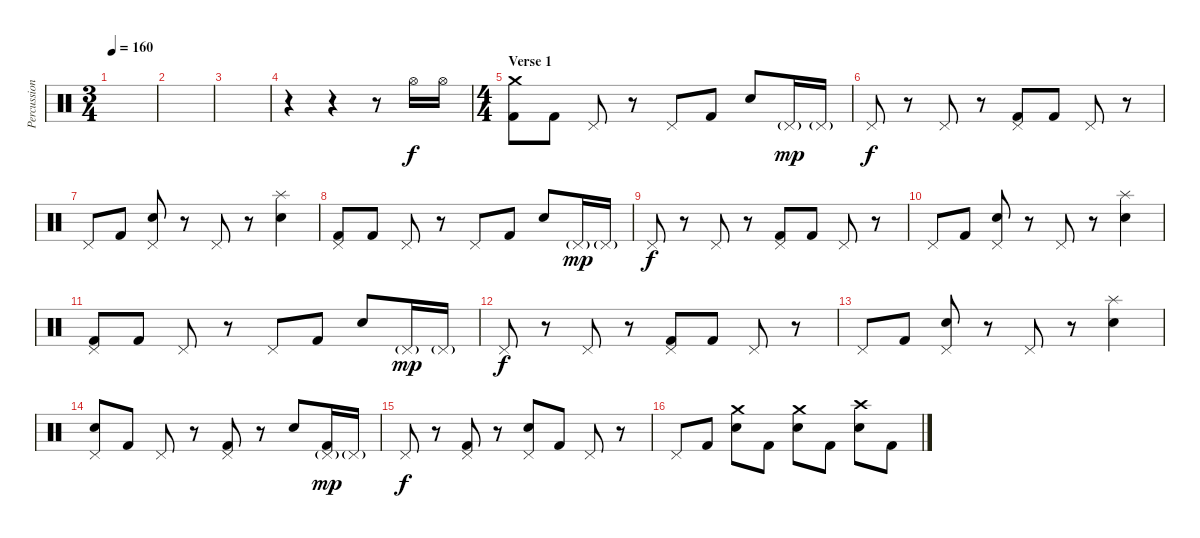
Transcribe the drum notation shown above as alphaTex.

\track ("Percussion" "Percussion") {instrument percussion}
\staff {score}
\articulation defaults
\ts (3 4)
\tempo 160
\clef neutral
\ks c
|
|
|
r.4 r.4 r.8 "Hi-Hat (open)".16 "Hi-Hat (open)".16 |
\ts (4 4)
\section ("" "Verse 1")
("Crash medium (hit)" "Kick (hit) 2").8 "Kick (hit) 2".8 "Pedal Hi-Hat (hit)".8 r.8 "Pedal Hi-Hat (hit)".8 "Kick (hit) 2".8 "Electric Snare (hit)".8 "Pedal Hi-Hat (hit)"{g}.16{dy mp} "Pedal Hi-Hat (hit)"{g}.16 |
"Pedal Hi-Hat (hit)".8{dy f} r.8 "Pedal Hi-Hat (hit)".8 r.8 ("Pedal Hi-Hat (hit)" "Kick (hit) 2").8 "Kick (hit) 2".8 "Pedal Hi-Hat (hit)".8 r.8 |
"Pedal Hi-Hat (hit)".8 "Kick (hit) 2".8 ("Pedal Hi-Hat (hit)" "Electric Snare (hit)").8 r.8 "Pedal Hi-Hat (hit)".8 r.8 ("Splash (hit)" "Electric Snare (hit)").4 |
("Pedal Hi-Hat (hit)" "Kick (hit) 2").8 "Kick (hit) 2".8 "Pedal Hi-Hat (hit)".8 r.8 "Pedal Hi-Hat (hit)".8 "Kick (hit) 2".8 "Electric Snare (hit)".8 "Pedal Hi-Hat (hit)"{g}.16{dy mp} "Pedal Hi-Hat (hit)"{g}.16 |
"Pedal Hi-Hat (hit)".8{dy f} r.8 "Pedal Hi-Hat (hit)".8 r.8 ("Pedal Hi-Hat (hit)" "Kick (hit) 2").8 "Kick (hit) 2".8 "Pedal Hi-Hat (hit)".8 r.8 |
"Pedal Hi-Hat (hit)".8 "Kick (hit) 2".8 ("Pedal Hi-Hat (hit)" "Electric Snare (hit)").8 r.8 "Pedal Hi-Hat (hit)".8 r.8 ("Splash (hit)" "Electric Snare (hit)").4 |
("Pedal Hi-Hat (hit)" "Kick (hit) 2").8 "Kick (hit) 2".8 "Pedal Hi-Hat (hit)".8 r.8 "Pedal Hi-Hat (hit)".8 "Kick (hit) 2".8 "Electric Snare (hit)".8 "Pedal Hi-Hat (hit)"{g}.16{dy mp} "Pedal Hi-Hat (hit)"{g}.16 |
"Pedal Hi-Hat (hit)".8{dy f} r.8 "Pedal Hi-Hat (hit)".8 r.8 ("Pedal Hi-Hat (hit)" "Kick (hit) 2").8 "Kick (hit) 2".8 "Pedal Hi-Hat (hit)".8 r.8 |
"Pedal Hi-Hat (hit)".8 "Kick (hit) 2".8 ("Pedal Hi-Hat (hit)" "Electric Snare (hit)").8 r.8 "Pedal Hi-Hat (hit)".8 r.8 ("Splash (hit)" "Electric Snare (hit)").4 |
("Pedal Hi-Hat (hit)" "Electric Snare (hit)").8 "Kick (hit) 2".8 "Pedal Hi-Hat (hit)".8 r.8 ("Pedal Hi-Hat (hit)" "Kick (hit) 2").8 r.8 "Electric Snare (hit)".8 ("Pedal Hi-Hat (hit)"{g} "Kick (hit) 2").16{dy mp} "Pedal Hi-Hat (hit)"{g}.16 |
"Pedal Hi-Hat (hit)".8{dy f} r.8 ("Pedal Hi-Hat (hit)" "Kick (hit) 2").8 r.8 ("Pedal Hi-Hat (hit)" "Electric Snare (hit)").8 "Kick (hit) 2".8 "Pedal Hi-Hat (hit)".8 r.8 |
"Pedal Hi-Hat (hit)".8 "Kick (hit) 2".8 ("Crash medium (hit)" "Electric Snare (hit)").8 "Kick (hit) 2".8 ("Crash medium (hit)" "Electric Snare (hit)").8 "Kick (hit) 2".8 ("Crash high (hit)" "Electric Snare (hit)").8 "Kick (hit) 2".8
